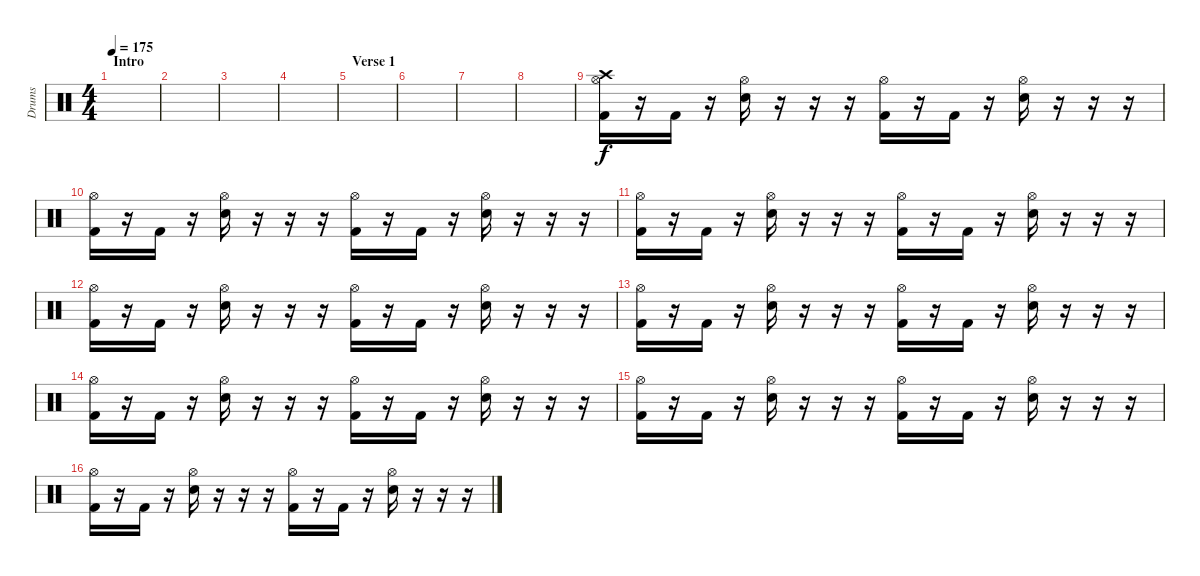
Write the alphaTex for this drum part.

\track ("Drums" "Drums") {instrument percussion}
\staff {score}
\articulation defaults
\ts (4 4)
\section ("" "Intro")
\tempo 175
\clef neutral
\ks c
|
|
|
|
\section ("" "Verse 1")
|
|
|
|
("Crash high (hit)" "Hi-Hat (open)" "Kick (hit) 2").16 r.16 "Kick (hit) 2".16 r.16 ("Hi-Hat (open)" "Snare (hit) 2").16 r.16 r.16 r.16 ("Hi-Hat (open)" "Kick (hit) 2").16 r.16 "Kick (hit) 2".16 r.16 ("Hi-Hat (open)" "Snare (hit) 2").16 r.16 r.16 r.16 |
("Hi-Hat (open)" "Kick (hit) 2").16 r.16 "Kick (hit) 2".16 r.16 ("Hi-Hat (open)" "Snare (hit) 2").16 r.16 r.16 r.16 ("Hi-Hat (open)" "Kick (hit) 2").16 r.16 "Kick (hit) 2".16 r.16 ("Hi-Hat (open)" "Snare (hit) 2").16 r.16 r.16 r.16 |
("Hi-Hat (open)" "Kick (hit) 2").16 r.16 "Kick (hit) 2".16 r.16 ("Hi-Hat (open)" "Snare (hit) 2").16 r.16 r.16 r.16 ("Hi-Hat (open)" "Kick (hit) 2").16 r.16 "Kick (hit) 2".16 r.16 ("Hi-Hat (open)" "Snare (hit) 2").16 r.16 r.16 r.16 |
("Hi-Hat (open)" "Kick (hit) 2").16 r.16 "Kick (hit) 2".16 r.16 ("Hi-Hat (open)" "Snare (hit) 2").16 r.16 r.16 r.16 ("Hi-Hat (open)" "Kick (hit) 2").16 r.16 "Kick (hit) 2".16 r.16 ("Hi-Hat (open)" "Snare (hit) 2").16 r.16 r.16 r.16 |
("Hi-Hat (open)" "Kick (hit) 2").16 r.16 "Kick (hit) 2".16 r.16 ("Hi-Hat (open)" "Snare (hit) 2").16 r.16 r.16 r.16 ("Hi-Hat (open)" "Kick (hit) 2").16 r.16 "Kick (hit) 2".16 r.16 ("Hi-Hat (open)" "Snare (hit) 2").16 r.16 r.16 r.16 |
("Hi-Hat (open)" "Kick (hit) 2").16 r.16 "Kick (hit) 2".16 r.16 ("Hi-Hat (open)" "Snare (hit) 2").16 r.16 r.16 r.16 ("Hi-Hat (open)" "Kick (hit) 2").16 r.16 "Kick (hit) 2".16 r.16 ("Hi-Hat (open)" "Snare (hit) 2").16 r.16 r.16 r.16 |
("Hi-Hat (open)" "Kick (hit) 2").16 r.16 "Kick (hit) 2".16 r.16 ("Hi-Hat (open)" "Snare (hit) 2").16 r.16 r.16 r.16 ("Hi-Hat (open)" "Kick (hit) 2").16 r.16 "Kick (hit) 2".16 r.16 ("Hi-Hat (open)" "Snare (hit) 2").16 r.16 r.16 r.16 |
("Hi-Hat (open)" "Kick (hit) 2").16 r.16 "Kick (hit) 2".16 r.16 ("Hi-Hat (open)" "Snare (hit) 2").16 r.16 r.16 r.16 ("Hi-Hat (open)" "Kick (hit) 2").16 r.16 "Kick (hit) 2".16 r.16 ("Hi-Hat (open)" "Snare (hit) 2").16 r.16 r.16 r.16
